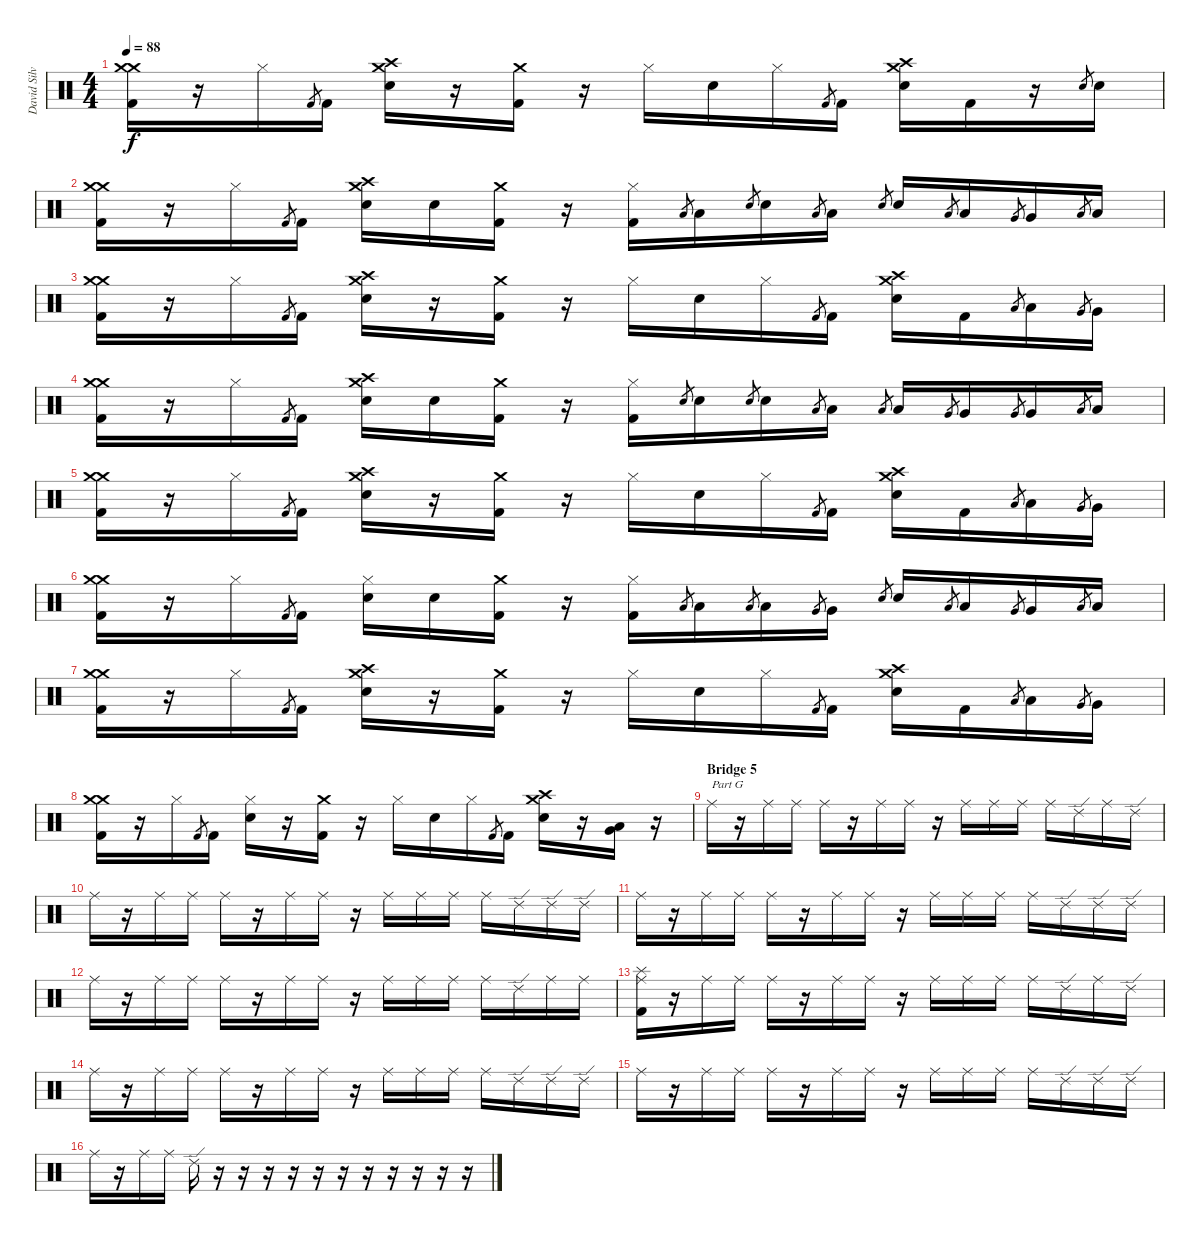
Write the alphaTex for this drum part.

\track ("David Silveria" "David Silv") {instrument percussion}
\staff {score}
\articulation defaults
\ts (4 4)
\tempo 88
\clef neutral
\ks c
("Crash medium (hit)" "Crash medium (hit)" "Kick (hit) 2").16{dy f} r.16 "Hi-Hat (closed)".16 "Kick (hit) 2".8{gr} "Kick (hit) 2".16 ("Crash medium (hit)" "Crash high (hit)" "Snare (hit) 2").16 r.16 ("Crash medium (hit)" "Kick (hit) 2").16 r.16 "Hi-Hat (closed)".16 "Snare (hit) 2".16 "Hi-Hat (closed)".16 "Kick (hit) 2".8{gr} "Kick (hit) 2".16 ("Crash medium (hit)" "Crash high (hit)" "Snare (hit) 2").16 "Kick (hit) 2".16 r.16 "Snare (hit) 2".8{gr} "Snare (hit) 2".16 |
("Crash medium (hit)" "Crash medium (hit)" "Kick (hit) 2").16 r.16 "Hi-Hat (closed)".16 "Kick (hit) 2".8{gr} "Kick (hit) 2".16 ("Crash medium (hit)" "Crash high (hit)" "Snare (hit) 2").16 "Snare (hit) 2".16 ("Crash medium (hit)" "Kick (hit) 2").16 r.16 ("Hi-Hat (closed)" "Kick (hit) 2").16 "Low Tom (hit)".8{gr} "Low Tom (hit)".16 "Snare (hit) 2".8{gr} "Snare (hit) 2".16 "Low Tom (hit)".8{gr} "Low Tom (hit)".16 "Snare (hit) 2".8{gr} "Snare (hit) 2".16 "Low Tom (hit)".8{gr} "Low Tom (hit)".16 "Very Low Tom (hit)".8{gr} "Very Low Tom (hit)".16 "Low Floor Tom (hit)".8{gr} "Low Floor Tom (hit)".16 |
("Crash medium (hit)" "Crash medium (hit)" "Kick (hit) 2").16 r.16 "Hi-Hat (closed)".16 "Kick (hit) 2".8{gr} "Kick (hit) 2".16 ("Crash medium (hit)" "Crash high (hit)" "Snare (hit) 2").16 r.16 ("Crash medium (hit)" "Kick (hit) 2").16 r.16 "Hi-Hat (closed)".16 "Snare (hit) 2".16 "Hi-Hat (closed)".16 "Kick (hit) 2".8{gr} "Kick (hit) 2".16 ("Crash medium (hit)" "Crash high (hit)" "Snare (hit) 2").16 "Kick (hit) 2".16 "Low Tom (hit)".8{gr} "Low Tom (hit)".16 "Very Low Tom (hit)".8{gr} "Very Low Tom (hit)".16 |
("Crash medium (hit)" "Crash medium (hit)" "Kick (hit) 2").16 r.16 "Hi-Hat (closed)".16 "Kick (hit) 2".8{gr} "Kick (hit) 2".16 ("Crash medium (hit)" "Crash high (hit)" "Snare (hit) 2").16 "Snare (hit) 2".16 ("Crash medium (hit)" "Kick (hit) 2").16 r.16 ("Hi-Hat (closed)" "Kick (hit) 2").16 "Snare (hit) 2".8{gr} "Snare (hit) 2".16 "Snare (hit) 2".8{gr} "Snare (hit) 2".16 "Low Tom (hit)".8{gr} "Low Tom (hit)".16 "Low Tom (hit)".8{gr} "Low Tom (hit)".16 "Very Low Tom (hit)".8{gr} "Very Low Tom (hit)".16 "Very Low Tom (hit)".8{gr} "Very Low Tom (hit)".16 "Low Floor Tom (hit)".8{gr} "Low Floor Tom (hit)".16 |
("Crash medium (hit)" "Crash medium (hit)" "Kick (hit) 2").16 r.16 "Hi-Hat (closed)".16 "Kick (hit) 2".8{gr} "Kick (hit) 2".16 ("Crash medium (hit)" "Crash high (hit)" "Snare (hit) 2").16 r.16 ("Crash medium (hit)" "Kick (hit) 2").16 r.16 "Hi-Hat (closed)".16 "Snare (hit) 2".16 "Hi-Hat (closed)".16 "Kick (hit) 2".8{gr} "Kick (hit) 2".16 ("Crash medium (hit)" "Crash high (hit)" "Snare (hit) 2").16 "Kick (hit) 2".16 "Low Tom (hit)".8{gr} "Low Tom (hit)".16 "Very Low Tom (hit)".8{gr} "Very Low Tom (hit)".16 |
("Crash medium (hit)" "Crash medium (hit)" "Kick (hit) 2").16 r.16 "Hi-Hat (closed)".16 "Kick (hit) 2".8{gr} "Kick (hit) 2".16 ("Hi-Hat (closed)" "Snare (hit) 2").16 "Snare (hit) 2".16 ("Crash medium (hit)" "Kick (hit) 2").16 r.16 ("Hi-Hat (closed)" "Kick (hit) 2").16 "Low Tom (hit)".8{gr} "Low Tom (hit)".16 "Low Tom (hit)".8{gr} "Low Tom (hit)".16 "Very Low Tom (hit)".8{gr} "Very Low Tom (hit)".16 "Snare (hit) 2".8{gr} "Snare (hit) 2".16 "Low Tom (hit)".8{gr} "Low Tom (hit)".16 "Very Low Tom (hit)".8{gr} "Very Low Tom (hit)".16 "Low Floor Tom (hit)".8{gr} "Low Floor Tom (hit)".16 |
("Crash medium (hit)" "Crash medium (hit)" "Kick (hit) 2").16 r.16 "Hi-Hat (closed)".16 "Kick (hit) 2".8{gr} "Kick (hit) 2".16 ("Crash medium (hit)" "Crash high (hit)" "Snare (hit) 2").16 r.16 ("Crash medium (hit)" "Kick (hit) 2").16 r.16 "Hi-Hat (closed)".16 "Snare (hit) 2".16 "Hi-Hat (closed)".16 "Kick (hit) 2".8{gr} "Kick (hit) 2".16 ("Crash medium (hit)" "Crash high (hit)" "Snare (hit) 2").16 "Kick (hit) 2".16 "Low Tom (hit)".8{gr} "Low Tom (hit)".16 "Very Low Tom (hit)".8{gr} "Very Low Tom (hit)".16 |
("Crash medium (hit)" "Crash medium (hit)" "Kick (hit) 2").16 r.16 "Hi-Hat (closed)".16 "Kick (hit) 2".8{gr} "Kick (hit) 2".16 ("Hi-Hat (closed)" "Snare (hit) 2").16 r.16 ("Crash medium (hit)" "Kick (hit) 2").16 r.16 "Hi-Hat (closed)".16 "Snare (hit) 2".16 "Hi-Hat (closed)".16 "Kick (hit) 2".8{gr} "Kick (hit) 2".16 ("Crash medium (hit)" "Crash high (hit)" "Snare (hit) 2").16 r.16 ("Very Low Tom (hit)" "Low Floor Tom (hit)").16 r.16 |
\section ("" "Bridge 5")
"Ride (middle)".16{txt "Part G"} r.16 "Ride (middle)".16 "Ride (middle)".16 "Ride (middle)".16 r.16 "Ride (middle)".16 "Ride (middle)".16 r.16 "Ride (middle)".16 "Ride (middle)".16 "Ride (middle)".16 "Ride (middle)".16 "Ride (edge) 2".16 "Ride (middle)".16 "Ride (edge) 2".16 |
"Ride (middle)".16 r.16 "Ride (middle)".16 "Ride (middle)".16 "Ride (middle)".16 r.16 "Ride (middle)".16 "Ride (middle)".16 r.16 "Ride (middle)".16 "Ride (middle)".16 "Ride (middle)".16 "Ride (middle)".16 "Ride (edge) 2".16 "Ride (edge) 2".16 "Ride (edge) 2".16 |
"Ride (middle)".16 r.16 "Ride (middle)".16 "Ride (middle)".16 "Ride (middle)".16 r.16 "Ride (middle)".16 "Ride (middle)".16 r.16 "Ride (middle)".16 "Ride (middle)".16 "Ride (middle)".16 "Ride (middle)".16 "Ride (edge) 2".16 "Ride (edge) 2".16 "Ride (edge) 2".16 |
"Ride (middle)".16 r.16 "Ride (middle)".16 "Ride (middle)".16 "Ride (middle)".16 r.16 "Ride (middle)".16 "Ride (middle)".16 r.16 "Ride (middle)".16 "Ride (middle)".16 "Ride (middle)".16 "Ride (middle)".16 "Ride (edge) 2".16 "Ride (middle)".16 "Ride (middle)".16 |
("Splash (hit)" "Ride (middle)" "Kick (hit) 2").16 r.16 "Ride (middle)".16 "Ride (middle)".16 "Ride (middle)".16 r.16 "Ride (middle)".16 "Ride (middle)".16 r.16 "Ride (middle)".16 "Ride (middle)".16 "Ride (middle)".16 "Ride (middle)".16 "Ride (edge) 2".16 "Ride (middle)".16 "Ride (edge) 2".16 |
"Ride (middle)".16 r.16 "Ride (middle)".16 "Ride (middle)".16 "Ride (middle)".16 r.16 "Ride (middle)".16 "Ride (middle)".16 r.16 "Ride (middle)".16 "Ride (middle)".16 "Ride (middle)".16 "Ride (middle)".16 "Ride (edge) 2".16 "Ride (edge) 2".16 "Ride (edge) 2".16 |
"Ride (middle)".16 r.16 "Ride (middle)".16 "Ride (middle)".16 "Ride (middle)".16 r.16 "Ride (middle)".16 "Ride (middle)".16 r.16 "Ride (middle)".16 "Ride (middle)".16 "Ride (middle)".16 "Ride (middle)".16 "Ride (edge) 2".16 "Ride (edge) 2".16 "Ride (edge) 2".16 |
"Ride (middle)".16 r.16 "Ride (middle)".16 "Ride (middle)".16 "Ride (edge) 2".16 r.16 r.16 r.16 r.16 r.16 r.16 r.16 r.16 r.16 r.16 r.16
